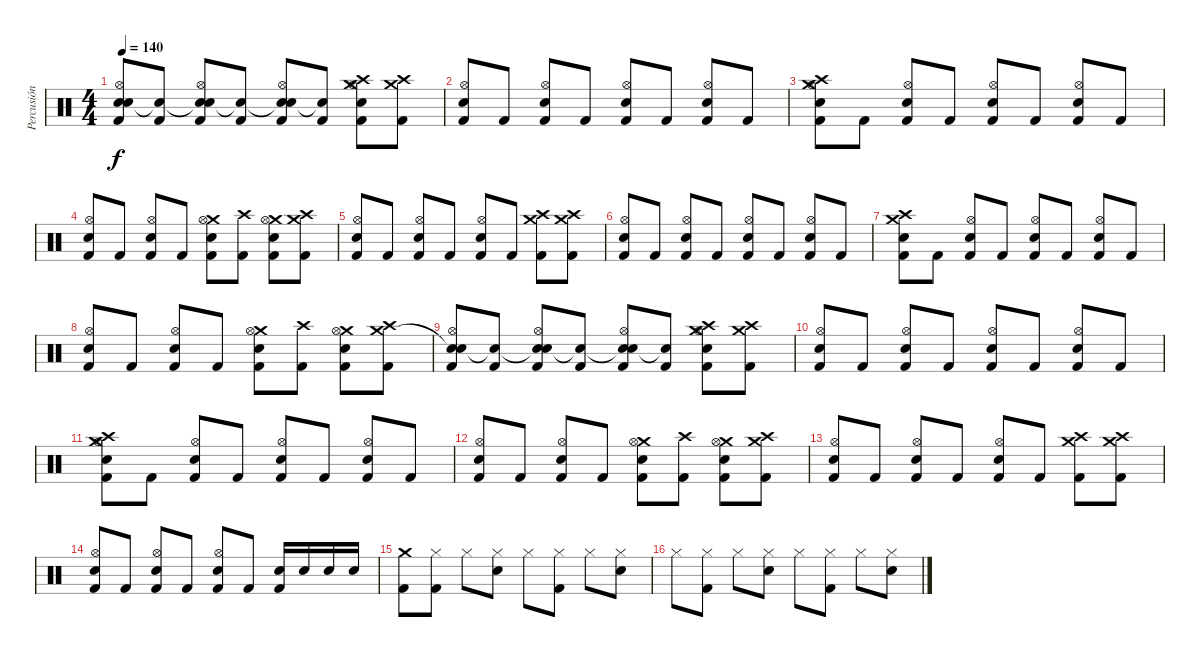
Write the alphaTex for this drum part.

\track ("Percusión" "Percusión") {instrument percussion}
\staff {score}
\articulation defaults
\ts (4 4)
\tempo 140
\clef neutral
\ks c
("Snare (hit)"{t} "Snare (hit) 2" "Hi-Hat (open)" "Kick (hit) 2").8{dy f} ("Snare (hit)"{t} "Kick (hit) 2").8 ("Snare (hit)"{t} "Snare (hit) 2" "Hi-Hat (open)" "Kick (hit) 2").8 ("Snare (hit)"{t} "Kick (hit) 2").8 ("Snare (hit)"{t} "Snare (hit) 2" "Hi-Hat (open)" "Kick (hit) 2").8 ("Snare (hit)"{t} "Kick (hit) 2").8 ("Crash high (hit)" "Crash medium (hit)" "Snare (hit) 2" "Hi-Hat (open)" "Kick (hit) 2").8 ("Crash high (hit)" "Crash medium (hit)" "Kick (hit) 2").8 |
("Snare (hit) 2" "Hi-Hat (open)" "Kick (hit) 2").8 "Kick (hit) 2".8 ("Snare (hit) 2" "Hi-Hat (open)" "Kick (hit) 2").8 "Kick (hit) 2".8 ("Snare (hit) 2" "Hi-Hat (open)" "Kick (hit) 2").8 "Kick (hit) 2".8 ("Snare (hit) 2" "Hi-Hat (open)" "Kick (hit) 2").8 "Kick (hit) 2".8 |
("Crash medium (hit)" "Crash high (hit)" "Snare (hit) 2" "Hi-Hat (open)" "Kick (hit) 2").8 "Kick (hit) 2".8 ("Snare (hit) 2" "Hi-Hat (open)" "Kick (hit) 2").8 "Kick (hit) 2".8 ("Snare (hit) 2" "Hi-Hat (open)" "Kick (hit) 2").8 "Kick (hit) 2".8 ("Snare (hit) 2" "Hi-Hat (open)" "Kick (hit) 2").8 "Kick (hit) 2".8 |
("Snare (hit) 2" "Hi-Hat (open)" "Kick (hit) 2").8 "Kick (hit) 2".8 ("Snare (hit) 2" "Hi-Hat (open)" "Kick (hit) 2").8 "Kick (hit) 2".8 ("Crash medium (hit)" "Snare (hit) 2" "Hi-Hat (open)" "Kick (hit) 2").8 ("Crash high (hit)" "Kick (hit) 2").8 ("Crash medium (hit)" "Snare (hit) 2" "Hi-Hat (open)" "Kick (hit) 2").8 ("Crash medium (hit)" "Crash high (hit)" "Kick (hit) 2").8 |
("Snare (hit) 2" "Hi-Hat (open)" "Kick (hit) 2").8 "Kick (hit) 2".8 ("Snare (hit) 2" "Hi-Hat (open)" "Kick (hit) 2").8 "Kick (hit) 2".8 ("Snare (hit) 2" "Hi-Hat (open)" "Kick (hit) 2").8 "Kick (hit) 2".8 ("Crash medium (hit)" "Crash high (hit)" "Kick (hit) 2").8 ("Crash medium (hit)" "Crash high (hit)" "Kick (hit) 2").8 |
("Snare (hit) 2" "Hi-Hat (open)" "Kick (hit) 2").8 "Kick (hit) 2".8 ("Snare (hit) 2" "Hi-Hat (open)" "Kick (hit) 2").8 "Kick (hit) 2".8 ("Snare (hit) 2" "Hi-Hat (open)" "Kick (hit) 2").8 "Kick (hit) 2".8 ("Snare (hit) 2" "Hi-Hat (open)" "Kick (hit) 2").8 "Kick (hit) 2".8 |
("Crash high (hit)" "Snare (hit) 2" "Crash medium (hit)" "Kick (hit) 2").8 "Kick (hit) 2".8 ("Snare (hit) 2" "Hi-Hat (open)" "Kick (hit) 2").8 "Kick (hit) 2".8 ("Snare (hit) 2" "Hi-Hat (open)" "Kick (hit) 2").8 "Kick (hit) 2".8 ("Snare (hit) 2" "Hi-Hat (open)" "Kick (hit) 2").8 "Kick (hit) 2".8 |
("Snare (hit) 2" "Hi-Hat (open)" "Kick (hit) 2").8 "Kick (hit) 2".8 ("Snare (hit) 2" "Hi-Hat (open)" "Kick (hit) 2").8 "Kick (hit) 2".8 ("Crash medium (hit)" "Snare (hit) 2" "Hi-Hat (open)" "Kick (hit) 2").8 ("Crash high (hit)" "Kick (hit) 2").8 ("Crash medium (hit)" "Snare (hit) 2" "Hi-Hat (open)" "Kick (hit) 2").8 ("Crash medium (hit)" "Crash high (hit)" "Kick (hit) 2").8 |
("Snare (hit)"{t} "Snare (hit) 2" "Hi-Hat (open)" "Kick (hit) 2").8 ("Snare (hit)"{t} "Kick (hit) 2").8 ("Snare (hit)"{t} "Snare (hit) 2" "Hi-Hat (open)" "Kick (hit) 2").8 ("Snare (hit)"{t} "Kick (hit) 2").8 ("Snare (hit)"{t} "Snare (hit) 2" "Hi-Hat (open)" "Kick (hit) 2").8 ("Snare (hit)"{t} "Kick (hit) 2").8 ("Crash high (hit)" "Crash medium (hit)" "Snare (hit) 2" "Hi-Hat (open)" "Kick (hit) 2").8 ("Crash high (hit)" "Crash medium (hit)" "Kick (hit) 2").8 |
("Snare (hit) 2" "Hi-Hat (open)" "Kick (hit) 2").8 "Kick (hit) 2".8 ("Snare (hit) 2" "Hi-Hat (open)" "Kick (hit) 2").8 "Kick (hit) 2".8 ("Snare (hit) 2" "Hi-Hat (open)" "Kick (hit) 2").8 "Kick (hit) 2".8 ("Snare (hit) 2" "Hi-Hat (open)" "Kick (hit) 2").8 "Kick (hit) 2".8 |
("Crash medium (hit)" "Crash high (hit)" "Snare (hit) 2" "Hi-Hat (open)" "Kick (hit) 2").8 "Kick (hit) 2".8 ("Snare (hit) 2" "Hi-Hat (open)" "Kick (hit) 2").8 "Kick (hit) 2".8 ("Snare (hit) 2" "Hi-Hat (open)" "Kick (hit) 2").8 "Kick (hit) 2".8 ("Snare (hit) 2" "Hi-Hat (open)" "Kick (hit) 2").8 "Kick (hit) 2".8 |
("Snare (hit) 2" "Hi-Hat (open)" "Kick (hit) 2").8 "Kick (hit) 2".8 ("Snare (hit) 2" "Hi-Hat (open)" "Kick (hit) 2").8 "Kick (hit) 2".8 ("Crash medium (hit)" "Snare (hit) 2" "Hi-Hat (open)" "Kick (hit) 2").8 ("Crash high (hit)" "Kick (hit) 2").8 ("Crash medium (hit)" "Snare (hit) 2" "Hi-Hat (open)" "Kick (hit) 2").8 ("Crash medium (hit)" "Crash high (hit)" "Kick (hit) 2").8 |
("Snare (hit) 2" "Hi-Hat (open)" "Kick (hit) 2").8 "Kick (hit) 2".8 ("Snare (hit) 2" "Hi-Hat (open)" "Kick (hit) 2").8 "Kick (hit) 2".8 ("Snare (hit) 2" "Hi-Hat (open)" "Kick (hit) 2").8 "Kick (hit) 2".8 ("Crash medium (hit)" "Crash high (hit)" "Kick (hit) 2").8 ("Crash medium (hit)" "Crash high (hit)" "Kick (hit) 2").8 |
("Snare (hit) 2" "Hi-Hat (open)" "Kick (hit) 2").8 "Kick (hit) 2".8 ("Snare (hit) 2" "Hi-Hat (open)" "Kick (hit) 2").8 "Kick (hit) 2".8 ("Snare (hit) 2" "Hi-Hat (open)" "Kick (hit) 2").8 "Kick (hit) 2".8 ("Snare (hit) 2" "Kick (hit) 2").16 "Snare (hit) 2".16 "Snare (hit) 2".16 "Snare (hit) 2".16 |
("Crash medium (hit)" "Kick (hit) 2").8 ("Hi-Hat (closed)" "Kick (hit) 2").8 "Hi-Hat (closed)".8 ("Hi-Hat (closed)" "Snare (hit) 2").8 "Hi-Hat (closed)".8 ("Hi-Hat (closed)" "Kick (hit) 2").8 "Hi-Hat (closed)".8 ("Hi-Hat (closed)" "Snare (hit) 2").8 |
"Hi-Hat (closed)".8 ("Hi-Hat (closed)" "Kick (hit) 2").8 "Hi-Hat (closed)".8 ("Hi-Hat (closed)" "Snare (hit) 2").8 "Hi-Hat (closed)".8 ("Hi-Hat (closed)" "Kick (hit) 2").8 "Hi-Hat (closed)".8 ("Hi-Hat (closed)" "Snare (hit) 2").8
